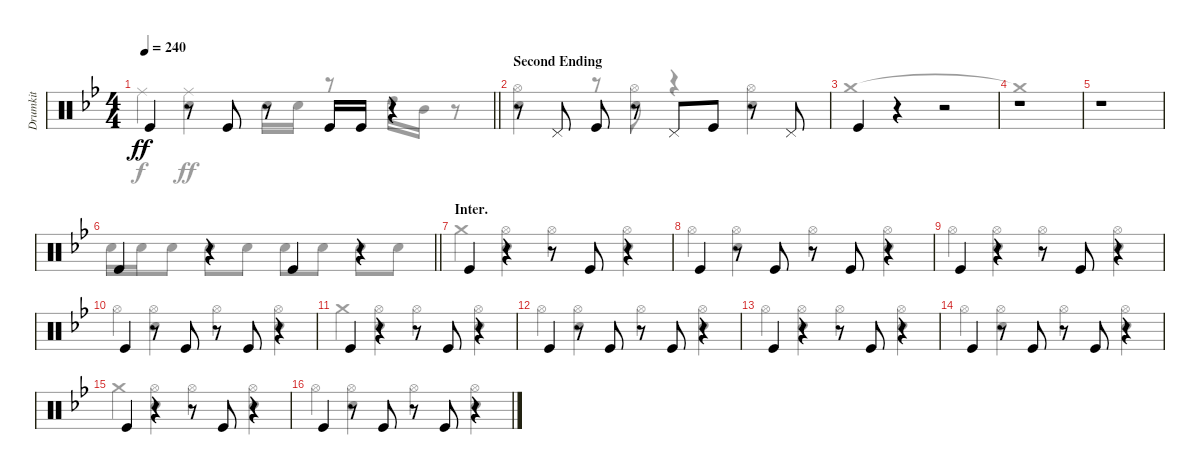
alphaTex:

\track ("Drumkit" "Drumkit") {instrument percussion}
\staff {score}
\articulation defaults
\voice
\ts (4 4)
\tempo 240
\clef neutral
\barLineRight lightlight
\ks bb "Kick (hit)".4{dy ff}
r.8 "Kick (hit)".8 r.8 "Kick (hit)".16 "Kick (hit)".16 r.4 |
\section ("" "Second Ending")
r.8 "Pedal Hi-Hat (hit)".8 "Kick (hit)".8 r.8 "Pedal Hi-Hat (hit)".8 "Kick (hit)".8 r.8 "Pedal Hi-Hat (hit)".8 |
"Kick (hit)".4 r.4 r.2 |
r.1 |
r.1 |
\barLineRight lightlight "Kick (hit)".4
r.4 "Kick (hit)".4 r.4 |
\section ("" "Inter.")
"Kick (hit)".4 r.4 r.8 "Kick (hit)".8 r.4 |
"Kick (hit)".4 r.8 "Kick (hit)".8 r.8 "Kick (hit)".8 r.4 |
"Kick (hit)".4 r.4 r.8 "Kick (hit)".8 r.4 |
"Kick (hit)".4 r.8 "Kick (hit)".8 r.8 "Kick (hit)".8 r.4 |
"Kick (hit)".4 r.4 r.8 "Kick (hit)".8 r.4 |
"Kick (hit)".4 r.8 "Kick (hit)".8 r.8 "Kick (hit)".8 r.4 |
"Kick (hit)".4 r.4 r.8 "Kick (hit)".8 r.4 |
"Kick (hit)".4 r.8 "Kick (hit)".8 r.8 "Kick (hit)".8 r.4 |
"Kick (hit)".4 r.4 r.8 "Kick (hit)".8 r.4 |
"Kick (hit)".4 r.8 "Kick (hit)".8 r.8 "Kick (hit)".8 r.4
\voice
\clef neutral
\ottava regular
\simile none
\barLineRight lightlight
\ks bb "Ride (middle)".4{dy f}
("Ride (middle)" "Snare (hit) 2").4{dy ff} "Snare (hit) 2".16 "Snare (hit) 2".16 r.8 "High Tom (hit)".16 "Mid Tom (hit)".16 r.8 |
("Hi-Hat (open)" "Snare (hit) 2").4 r.8 ("Snare (hit) 2" "Hi-Hat (open)").8 r.4 ("Hi-Hat (open)" "Snare (hit) 2").4 |
"Crash medium (hit)".1 |
"Crash medium (hit)"{t}.1 |
r.1 |
\barLineRight lightlight "Snare (hit) 2".16 "Snare (hit) 2".16 "Snare (hit) 2".8 "Snare (hit) 2".8 "Snare (hit) 2".8 "Snare (hit) 2".8 "Snare (hit) 2".8 "Snare (hit) 2".8 "Snare (hit) 2".8
|
"Crash medium (hit)".4 ("Hi-Hat (open)" "Snare (hit) 2").4 "Hi-Hat (open)".4 ("Hi-Hat (open)" "Snare (hit) 2").4 |
"Hi-Hat (open)".4 ("Hi-Hat (open)" "Snare (hit) 2").4 "Hi-Hat (open)".4 ("Hi-Hat (open)" "Snare (hit) 2").4 |
"Hi-Hat (open)".4 ("Hi-Hat (open)" "Snare (hit) 2").4 "Hi-Hat (open)".4 ("Hi-Hat (open)" "Snare (hit) 2").4 |
"Hi-Hat (open)".4 ("Hi-Hat (open)" "Snare (hit) 2").4 "Hi-Hat (open)".4 ("Hi-Hat (open)" "Snare (hit) 2").4 |
"Crash medium (hit)".4 ("Hi-Hat (open)" "Snare (hit) 2").4 "Hi-Hat (open)".4 ("Hi-Hat (open)" "Snare (hit) 2").4 |
"Hi-Hat (open)".4 ("Hi-Hat (open)" "Snare (hit) 2").4 "Hi-Hat (open)".4 ("Hi-Hat (open)" "Snare (hit) 2").4 |
"Hi-Hat (open)".4 ("Hi-Hat (open)" "Snare (hit) 2").4 "Hi-Hat (open)".4 ("Hi-Hat (open)" "Snare (hit) 2").4 |
"Hi-Hat (open)".4 ("Hi-Hat (open)" "Snare (hit) 2").4 "Hi-Hat (open)".4 ("Hi-Hat (open)" "Snare (hit) 2").4 |
"Crash medium (hit)".4 ("Hi-Hat (open)" "Snare (hit) 2").4 "Hi-Hat (open)".4 ("Hi-Hat (open)" "Snare (hit) 2").4 |
"Hi-Hat (open)".4 ("Hi-Hat (open)" "Snare (hit) 2").4 "Hi-Hat (open)".4 ("Hi-Hat (open)" "Snare (hit) 2").4
